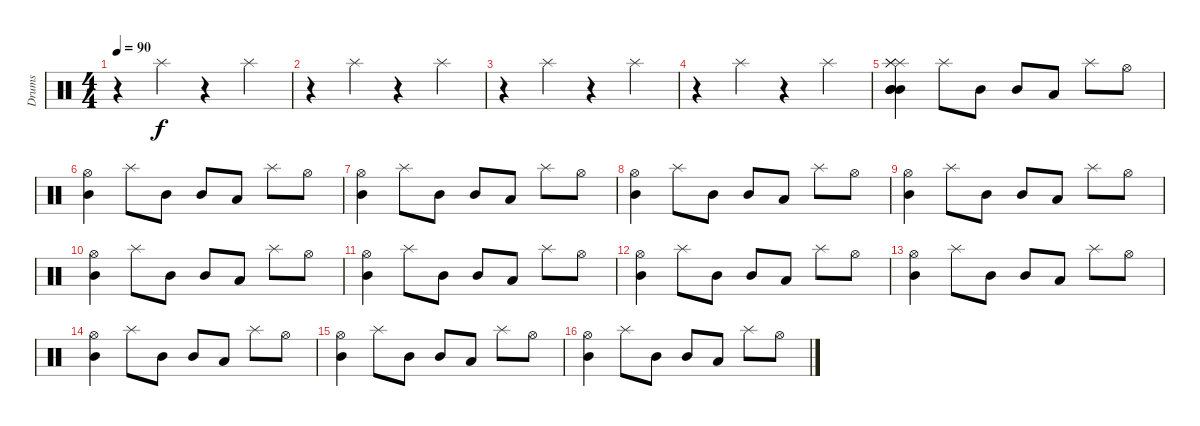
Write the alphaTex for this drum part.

\track ("Drums" "Drums") {instrument percussion}
\staff {score}
\articulation defaults
\ts (4 4)
\tempo 90
\clef neutral
\ks c
r.4{dy f} "Splash (hit)".4 r.4 "Splash (hit)".4 |
r.4 "Splash (hit)".4 r.4 "Splash (hit)".4 |
r.4 "Splash (hit)".4 r.4 "Splash (hit)".4 |
r.4 "Splash (hit)".4 r.4 "Splash (hit)".4 |
("Splash (hit)" "Splash (hit)" "Splash (hit)" "Mid Tom (hit)" "Mid Tom (hit)" "Mid Tom (hit)").4 "Splash (hit)".8 "Mid Tom (hit)".8 "Mid Tom (hit)".8 "Low Tom (hit)".8 "Splash (hit)".8 "Hi-Hat (open)".8 |
("Hi-Hat (open)" "Mid Tom (hit)").4 "Splash (hit)".8 "Mid Tom (hit)".8 "Mid Tom (hit)".8 "Low Tom (hit)".8 "Splash (hit)".8 "Hi-Hat (open)".8 |
("Hi-Hat (open)" "Mid Tom (hit)").4 "Splash (hit)".8 "Mid Tom (hit)".8 "Mid Tom (hit)".8 "Low Tom (hit)".8 "Splash (hit)".8 "Hi-Hat (open)".8 |
("Hi-Hat (open)" "Mid Tom (hit)").4 "Splash (hit)".8 "Mid Tom (hit)".8 "Mid Tom (hit)".8 "Low Tom (hit)".8 "Splash (hit)".8 "Hi-Hat (open)".8 |
("Hi-Hat (open)" "Mid Tom (hit)").4 "Splash (hit)".8 "Mid Tom (hit)".8 "Mid Tom (hit)".8 "Low Tom (hit)".8 "Splash (hit)".8 "Hi-Hat (open)".8 |
("Hi-Hat (open)" "Mid Tom (hit)").4 "Splash (hit)".8 "Mid Tom (hit)".8 "Mid Tom (hit)".8 "Low Tom (hit)".8 "Splash (hit)".8 "Hi-Hat (open)".8 |
("Hi-Hat (open)" "Mid Tom (hit)").4 "Splash (hit)".8 "Mid Tom (hit)".8 "Mid Tom (hit)".8 "Low Tom (hit)".8 "Splash (hit)".8 "Hi-Hat (open)".8 |
("Hi-Hat (open)" "Mid Tom (hit)").4 "Splash (hit)".8 "Mid Tom (hit)".8 "Mid Tom (hit)".8 "Low Tom (hit)".8 "Splash (hit)".8 "Hi-Hat (open)".8 |
("Hi-Hat (open)" "Mid Tom (hit)").4 "Splash (hit)".8 "Mid Tom (hit)".8 "Mid Tom (hit)".8 "Low Tom (hit)".8 "Splash (hit)".8 "Hi-Hat (open)".8 |
("Hi-Hat (open)" "Mid Tom (hit)").4 "Splash (hit)".8 "Mid Tom (hit)".8 "Mid Tom (hit)".8 "Low Tom (hit)".8 "Splash (hit)".8 "Hi-Hat (open)".8 |
("Hi-Hat (open)" "Mid Tom (hit)").4 "Splash (hit)".8 "Mid Tom (hit)".8 "Mid Tom (hit)".8 "Low Tom (hit)".8 "Splash (hit)".8 "Hi-Hat (open)".8 |
("Hi-Hat (open)" "Mid Tom (hit)").4 "Splash (hit)".8 "Mid Tom (hit)".8 "Mid Tom (hit)".8 "Low Tom (hit)".8 "Splash (hit)".8 "Hi-Hat (open)".8
